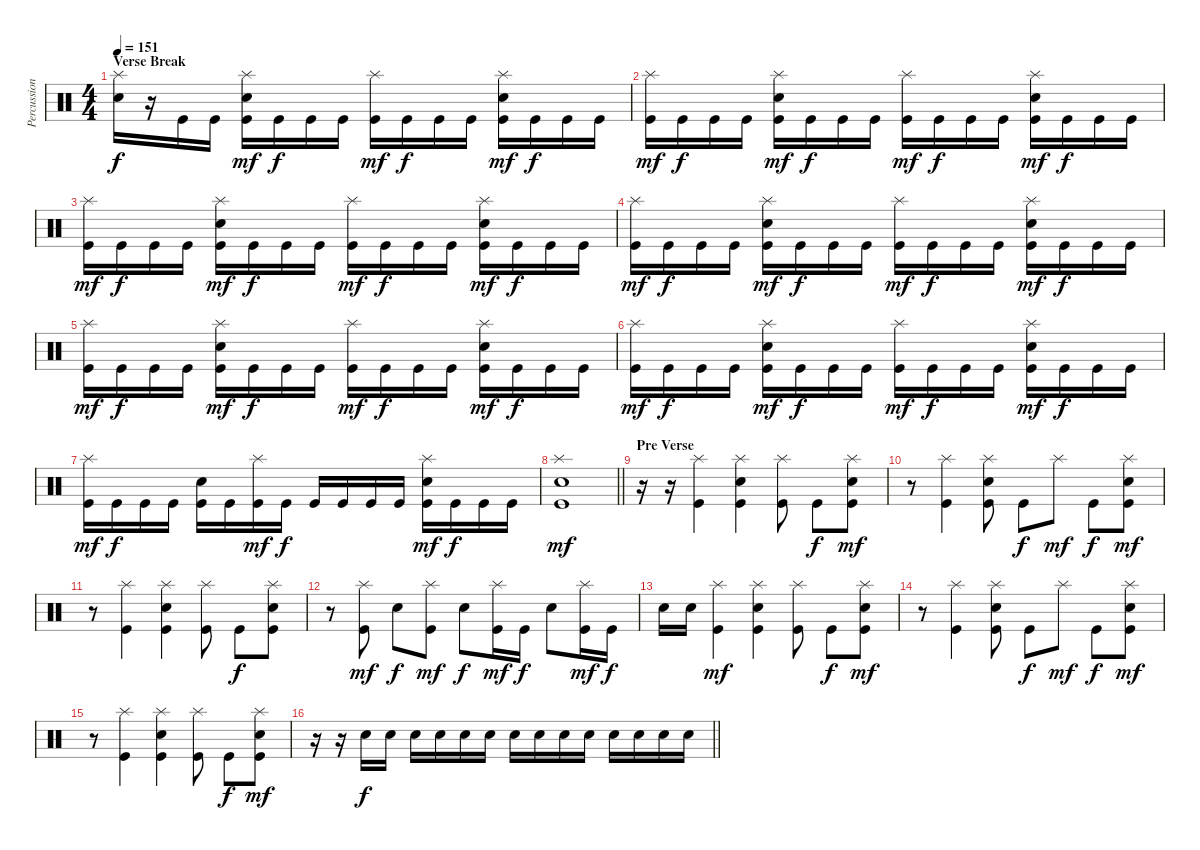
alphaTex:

\track ("Percussion" "Percussion") {instrument percussion}
\staff {score}
\articulation defaults
\ts (4 4)
\section ("" "Verse Break")
\tempo 151
\clef neutral
\ks c
("Splash (hit)" "Snare (hit) 2").16{dy f} r.16 "Kick (hit)".16 "Kick (hit)".16 ("Splash (hit)" "Snare (hit) 2" "Kick (hit)").16{dy mf} "Kick (hit)".16{dy f} "Kick (hit)".16 "Kick (hit)".16 ("Splash (hit)" "Kick (hit)").16{dy mf} "Kick (hit)".16{dy f} "Kick (hit)".16 "Kick (hit)".16 ("Splash (hit)" "Snare (hit) 2" "Kick (hit)").16{dy mf} "Kick (hit)".16{dy f} "Kick (hit)".16 "Kick (hit)".16 |
("Splash (hit)" "Kick (hit)").16{dy mf} "Kick (hit)".16{dy f} "Kick (hit)".16 "Kick (hit)".16 ("Splash (hit)" "Snare (hit) 2" "Kick (hit)").16{dy mf} "Kick (hit)".16{dy f} "Kick (hit)".16 "Kick (hit)".16 ("Splash (hit)" "Kick (hit)").16{dy mf} "Kick (hit)".16{dy f} "Kick (hit)".16 "Kick (hit)".16 ("Splash (hit)" "Snare (hit) 2" "Kick (hit)").16{dy mf} "Kick (hit)".16{dy f} "Kick (hit)".16 "Kick (hit)".16 |
("Splash (hit)" "Kick (hit)").16{dy mf} "Kick (hit)".16{dy f} "Kick (hit)".16 "Kick (hit)".16 ("Splash (hit)" "Snare (hit) 2" "Kick (hit)").16{dy mf} "Kick (hit)".16{dy f} "Kick (hit)".16 "Kick (hit)".16 ("Splash (hit)" "Kick (hit)").16{dy mf} "Kick (hit)".16{dy f} "Kick (hit)".16 "Kick (hit)".16 ("Splash (hit)" "Snare (hit) 2" "Kick (hit)").16{dy mf} "Kick (hit)".16{dy f} "Kick (hit)".16 "Kick (hit)".16 |
("Splash (hit)" "Kick (hit)").16{dy mf} "Kick (hit)".16{dy f} "Kick (hit)".16 "Kick (hit)".16 ("Splash (hit)" "Snare (hit) 2" "Kick (hit)").16{dy mf} "Kick (hit)".16{dy f} "Kick (hit)".16 "Kick (hit)".16 ("Splash (hit)" "Kick (hit)").16{dy mf} "Kick (hit)".16{dy f} "Kick (hit)".16 "Kick (hit)".16 ("Splash (hit)" "Snare (hit) 2" "Kick (hit)").16{dy mf} "Kick (hit)".16{dy f} "Kick (hit)".16 "Kick (hit)".16 |
("Splash (hit)" "Kick (hit)").16{dy mf} "Kick (hit)".16{dy f} "Kick (hit)".16 "Kick (hit)".16 ("Splash (hit)" "Snare (hit) 2" "Kick (hit)").16{dy mf} "Kick (hit)".16{dy f} "Kick (hit)".16 "Kick (hit)".16 ("Splash (hit)" "Kick (hit)").16{dy mf} "Kick (hit)".16{dy f} "Kick (hit)".16 "Kick (hit)".16 ("Splash (hit)" "Snare (hit) 2" "Kick (hit)").16{dy mf} "Kick (hit)".16{dy f} "Kick (hit)".16 "Kick (hit)".16 |
("Splash (hit)" "Kick (hit)").16{dy mf} "Kick (hit)".16{dy f} "Kick (hit)".16 "Kick (hit)".16 ("Splash (hit)" "Snare (hit) 2" "Kick (hit)").16{dy mf} "Kick (hit)".16{dy f} "Kick (hit)".16 "Kick (hit)".16 ("Splash (hit)" "Kick (hit)").16{dy mf} "Kick (hit)".16{dy f} "Kick (hit)".16 "Kick (hit)".16 ("Splash (hit)" "Snare (hit) 2" "Kick (hit)").16{dy mf} "Kick (hit)".16{dy f} "Kick (hit)".16 "Kick (hit)".16 |
("Splash (hit)" "Kick (hit)").16{dy mf} "Kick (hit)".16{dy f} "Kick (hit)".16 "Kick (hit)".16 ("Snare (hit) 2" "Kick (hit)").16 "Kick (hit)".16 ("Splash (hit)" "Kick (hit)").16{dy mf} "Kick (hit)".16{dy f} "Kick (hit)".16 "Kick (hit)".16 "Kick (hit)".16 "Kick (hit)".16 ("Splash (hit)" "Snare (hit) 2" "Kick (hit)").16{dy mf} "Kick (hit)".16{dy f} "Kick (hit)".16 "Kick (hit)".16 |
\barLineRight lightlight
("Splash (hit)" "Snare (hit) 2" "Kick (hit)").1{dy mf} |
\section ("" "Pre Verse")
r.16 r.16 ("Splash (hit)" "Kick (hit)").4 ("Splash (hit)" "Snare (hit) 2" "Kick (hit)").4 ("Splash (hit)" "Kick (hit)").8 "Kick (hit)".8{dy f} ("Splash (hit)" "Snare (hit) 2" "Kick (hit)").8{dy mf} |
r.8 ("Splash (hit)" "Kick (hit)").4 ("Splash (hit)" "Snare (hit) 2" "Kick (hit)").8 "Kick (hit)".8{dy f} "Splash (hit)".8{dy mf} "Kick (hit)".8{dy f} ("Splash (hit)" "Snare (hit) 2" "Kick (hit)").8{dy mf} |
r.8 ("Splash (hit)" "Kick (hit)").4 ("Splash (hit)" "Snare (hit) 2" "Kick (hit)").4 ("Splash (hit)" "Kick (hit)").8 "Kick (hit)".8{dy f} ("Splash (hit)" "Snare (hit) 2" "Kick (hit)").8 |
r.8 ("Splash (hit)" "Kick (hit)").8{dy mf} "Snare (hit) 2".8{dy f} ("Splash (hit)" "Kick (hit)").8{dy mf} "Snare (hit) 2".8{dy f} ("Splash (hit)" "Kick (hit)").16{dy mf} "Kick (hit)".16{dy f} "Snare (hit) 2".8 ("Splash (hit)" "Kick (hit)").16{dy mf} "Kick (hit)".16{dy f} |
"Electric Snare (hit)".16 "Electric Snare (hit)".16 ("Splash (hit)" "Kick (hit)").4{dy mf} ("Splash (hit)" "Snare (hit) 2" "Kick (hit)").4 ("Splash (hit)" "Kick (hit)").8 "Kick (hit)".8{dy f} ("Splash (hit)" "Snare (hit) 2" "Kick (hit)").8{dy mf} |
r.8 ("Splash (hit)" "Kick (hit)").4 ("Splash (hit)" "Snare (hit) 2" "Kick (hit)").8 "Kick (hit)".8{dy f} "Splash (hit)".8{dy mf} "Kick (hit)".8{dy f} ("Splash (hit)" "Snare (hit) 2" "Kick (hit)").8{dy mf} |
r.8 ("Splash (hit)" "Kick (hit)").4 ("Splash (hit)" "Snare (hit) 2" "Kick (hit)").4 ("Splash (hit)" "Kick (hit)").8 "Kick (hit)".8{dy f} ("Splash (hit)" "Snare (hit) 2" "Kick (hit)").8{dy mf} |
\barLineRight lightlight
r.16 r.16 "Electric Snare (hit)".16{dy f} "Electric Snare (hit)".16 "Electric Snare (hit)".16 "Electric Snare (hit)".16 "Electric Snare (hit)".16 "Electric Snare (hit)".16 "Electric Snare (hit)".16 "Electric Snare (hit)".16 "Electric Snare (hit)".16 "Electric Snare (hit)".16 "Electric Snare (hit)".16 "Electric Snare (hit)".16 "Electric Snare (hit)".16 "Electric Snare (hit)".16
